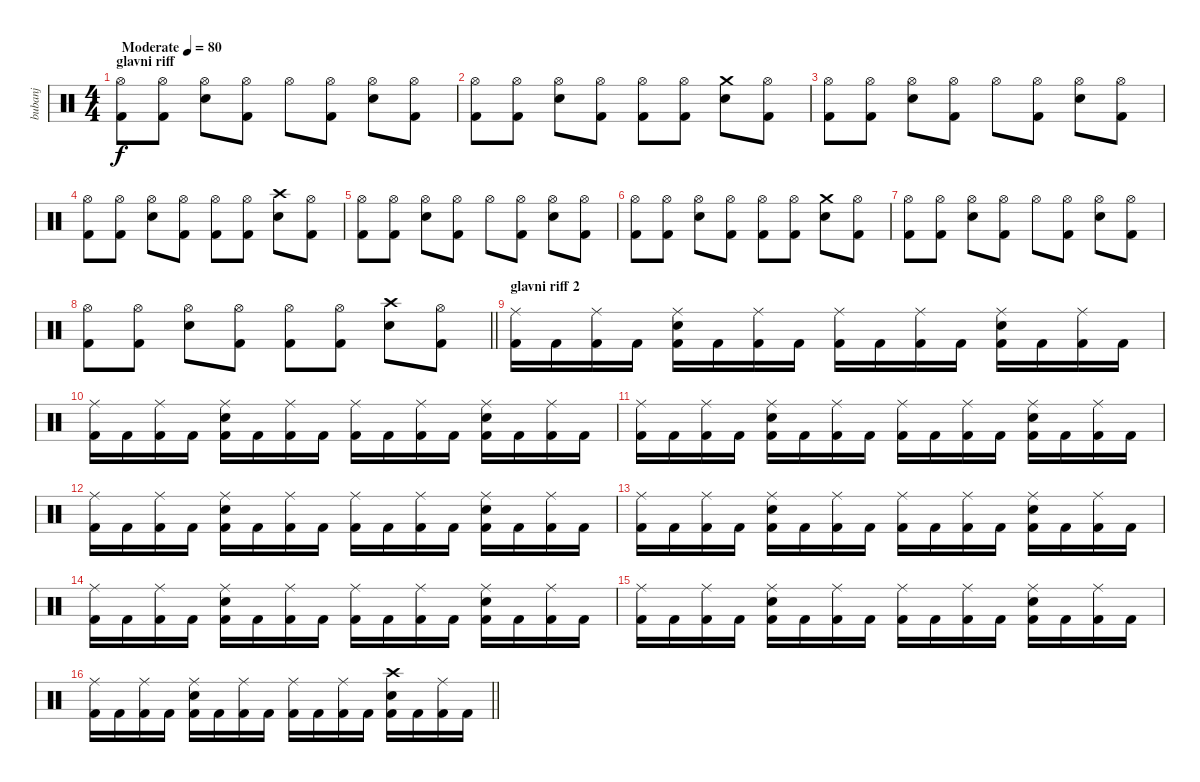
\track ("bubanj" "bubanj") {instrument percussion}
\staff {score}
\articulation defaults
\ts (4 4)
\section ("" "glavni riff")
\tempo (80 "Moderate")
\clef neutral
\ks c
("Hi-Hat (open)" "Kick (hit) 2").8{dy f} ("Hi-Hat (open)" "Kick (hit) 2").8 ("Hi-Hat (open)" "Electric Snare (hit)").8 ("Hi-Hat (open)" "Kick (hit) 2").8 "Hi-Hat (open)".8 ("Hi-Hat (open)" "Kick (hit) 2").8 ("Hi-Hat (open)" "Electric Snare (hit)").8 ("Hi-Hat (open)" "Kick (hit) 2").8 |
("Hi-Hat (open)" "Kick (hit) 2").8 ("Hi-Hat (open)" "Kick (hit) 2").8 ("Hi-Hat (open)" "Electric Snare (hit)").8 ("Hi-Hat (open)" "Kick (hit) 2").8 ("Hi-Hat (open)" "Kick (hit) 2").8 ("Hi-Hat (open)" "Kick (hit) 2").8 ("Crash medium (hit)" "Electric Snare (hit)").8 ("Hi-Hat (open)" "Kick (hit) 2").8 |
("Hi-Hat (open)" "Kick (hit) 2").8 ("Hi-Hat (open)" "Kick (hit) 2").8 ("Hi-Hat (open)" "Electric Snare (hit)").8 ("Hi-Hat (open)" "Kick (hit) 2").8 "Hi-Hat (open)".8 ("Hi-Hat (open)" "Kick (hit) 2").8 ("Hi-Hat (open)" "Electric Snare (hit)").8 ("Hi-Hat (open)" "Kick (hit) 2").8 |
("Hi-Hat (open)" "Kick (hit) 2").8 ("Hi-Hat (open)" "Kick (hit) 2").8 ("Hi-Hat (open)" "Electric Snare (hit)").8 ("Hi-Hat (open)" "Kick (hit) 2").8 ("Hi-Hat (open)" "Kick (hit) 2").8 ("Hi-Hat (open)" "Kick (hit) 2").8 ("Crash high (hit)" "Electric Snare (hit)").8 ("Hi-Hat (open)" "Kick (hit) 2").8 |
("Hi-Hat (open)" "Kick (hit) 2").8 ("Hi-Hat (open)" "Kick (hit) 2").8 ("Hi-Hat (open)" "Electric Snare (hit)").8 ("Hi-Hat (open)" "Kick (hit) 2").8 "Hi-Hat (open)".8 ("Hi-Hat (open)" "Kick (hit) 2").8 ("Hi-Hat (open)" "Electric Snare (hit)").8 ("Hi-Hat (open)" "Kick (hit) 2").8 |
("Hi-Hat (open)" "Kick (hit) 2").8 ("Hi-Hat (open)" "Kick (hit) 2").8 ("Hi-Hat (open)" "Electric Snare (hit)").8 ("Hi-Hat (open)" "Kick (hit) 2").8 ("Hi-Hat (open)" "Kick (hit) 2").8 ("Hi-Hat (open)" "Kick (hit) 2").8 ("Crash medium (hit)" "Electric Snare (hit)").8 ("Hi-Hat (open)" "Kick (hit) 2").8 |
("Hi-Hat (open)" "Kick (hit) 2").8 ("Hi-Hat (open)" "Kick (hit) 2").8 ("Hi-Hat (open)" "Electric Snare (hit)").8 ("Hi-Hat (open)" "Kick (hit) 2").8 "Hi-Hat (open)".8 ("Hi-Hat (open)" "Kick (hit) 2").8 ("Hi-Hat (open)" "Electric Snare (hit)").8 ("Hi-Hat (open)" "Kick (hit) 2").8 |
\barLineRight lightlight
("Hi-Hat (open)" "Kick (hit) 2").8 ("Hi-Hat (open)" "Kick (hit) 2").8 ("Hi-Hat (open)" "Electric Snare (hit)").8 ("Hi-Hat (open)" "Kick (hit) 2").8 ("Hi-Hat (open)" "Kick (hit) 2").8 ("Hi-Hat (open)" "Kick (hit) 2").8 ("Crash high (hit)" "Electric Snare (hit)").8 ("Hi-Hat (open)" "Kick (hit) 2").8 |
\section ("" "glavni riff 2")
("Ride (middle)" "Kick (hit) 2").16 "Kick (hit) 2".16 ("Ride (middle)" "Kick (hit) 2").16 "Kick (hit) 2".16 ("Ride (middle)" "Electric Snare (hit)" "Kick (hit) 2").16 "Kick (hit) 2".16 ("Ride (middle)" "Kick (hit) 2").16 "Kick (hit) 2".16 ("Ride (middle)" "Kick (hit) 2").16 "Kick (hit) 2".16 ("Ride (middle)" "Kick (hit) 2").16 "Kick (hit) 2".16 ("Ride (middle)" "Electric Snare (hit)" "Kick (hit) 2").16 "Kick (hit) 2".16 ("Ride (middle)" "Kick (hit) 2").16 "Kick (hit) 2".16 |
("Ride (middle)" "Kick (hit) 2").16 "Kick (hit) 2".16 ("Ride (middle)" "Kick (hit) 2").16 "Kick (hit) 2".16 ("Ride (middle)" "Electric Snare (hit)" "Kick (hit) 2").16 "Kick (hit) 2".16 ("Ride (middle)" "Kick (hit) 2").16 "Kick (hit) 2".16 ("Ride (middle)" "Kick (hit) 2").16 "Kick (hit) 2".16 ("Ride (middle)" "Kick (hit) 2").16 "Kick (hit) 2".16 ("Ride (middle)" "Electric Snare (hit)" "Kick (hit) 2").16 "Kick (hit) 2".16 ("Ride (middle)" "Kick (hit) 2").16 "Kick (hit) 2".16 |
("Ride (middle)" "Kick (hit) 2").16 "Kick (hit) 2".16 ("Ride (middle)" "Kick (hit) 2").16 "Kick (hit) 2".16 ("Ride (middle)" "Electric Snare (hit)" "Kick (hit) 2").16 "Kick (hit) 2".16 ("Ride (middle)" "Kick (hit) 2").16 "Kick (hit) 2".16 ("Ride (middle)" "Kick (hit) 2").16 "Kick (hit) 2".16 ("Ride (middle)" "Kick (hit) 2").16 "Kick (hit) 2".16 ("Ride (middle)" "Electric Snare (hit)" "Kick (hit) 2").16 "Kick (hit) 2".16 ("Ride (middle)" "Kick (hit) 2").16 "Kick (hit) 2".16 |
("Ride (middle)" "Kick (hit) 2").16 "Kick (hit) 2".16 ("Ride (middle)" "Kick (hit) 2").16 "Kick (hit) 2".16 ("Ride (middle)" "Electric Snare (hit)" "Kick (hit) 2").16 "Kick (hit) 2".16 ("Ride (middle)" "Kick (hit) 2").16 "Kick (hit) 2".16 ("Ride (middle)" "Kick (hit) 2").16 "Kick (hit) 2".16 ("Ride (middle)" "Kick (hit) 2").16 "Kick (hit) 2".16 ("Ride (middle)" "Electric Snare (hit)" "Kick (hit) 2").16 "Kick (hit) 2".16 ("Ride (middle)" "Kick (hit) 2").16 "Kick (hit) 2".16 |
("Ride (middle)" "Kick (hit) 2").16 "Kick (hit) 2".16 ("Ride (middle)" "Kick (hit) 2").16 "Kick (hit) 2".16 ("Ride (middle)" "Electric Snare (hit)" "Kick (hit) 2").16 "Kick (hit) 2".16 ("Ride (middle)" "Kick (hit) 2").16 "Kick (hit) 2".16 ("Ride (middle)" "Kick (hit) 2").16 "Kick (hit) 2".16 ("Ride (middle)" "Kick (hit) 2").16 "Kick (hit) 2".16 ("Ride (middle)" "Electric Snare (hit)" "Kick (hit) 2").16 "Kick (hit) 2".16 ("Ride (middle)" "Kick (hit) 2").16 "Kick (hit) 2".16 |
("Ride (middle)" "Kick (hit) 2").16 "Kick (hit) 2".16 ("Ride (middle)" "Kick (hit) 2").16 "Kick (hit) 2".16 ("Ride (middle)" "Electric Snare (hit)" "Kick (hit) 2").16 "Kick (hit) 2".16 ("Ride (middle)" "Kick (hit) 2").16 "Kick (hit) 2".16 ("Ride (middle)" "Kick (hit) 2").16 "Kick (hit) 2".16 ("Ride (middle)" "Kick (hit) 2").16 "Kick (hit) 2".16 ("Ride (middle)" "Electric Snare (hit)" "Kick (hit) 2").16 "Kick (hit) 2".16 ("Ride (middle)" "Kick (hit) 2").16 "Kick (hit) 2".16 |
("Ride (middle)" "Kick (hit) 2").16 "Kick (hit) 2".16 ("Ride (middle)" "Kick (hit) 2").16 "Kick (hit) 2".16 ("Ride (middle)" "Electric Snare (hit)" "Kick (hit) 2").16 "Kick (hit) 2".16 ("Ride (middle)" "Kick (hit) 2").16 "Kick (hit) 2".16 ("Ride (middle)" "Kick (hit) 2").16 "Kick (hit) 2".16 ("Ride (middle)" "Kick (hit) 2").16 "Kick (hit) 2".16 ("Ride (middle)" "Electric Snare (hit)" "Kick (hit) 2").16 "Kick (hit) 2".16 ("Ride (middle)" "Kick (hit) 2").16 "Kick (hit) 2".16 |
\barLineRight lightlight
("Ride (middle)" "Kick (hit) 2").16 "Kick (hit) 2".16 ("Ride (middle)" "Kick (hit) 2").16 "Kick (hit) 2".16 ("Ride (middle)" "Electric Snare (hit)" "Kick (hit) 2").16 "Kick (hit) 2".16 ("Ride (middle)" "Kick (hit) 2").16 "Kick (hit) 2".16 ("Ride (middle)" "Kick (hit) 2").16 "Kick (hit) 2".16 ("Ride (middle)" "Kick (hit) 2").16 "Kick (hit) 2".16 ("Crash high (hit)" "Electric Snare (hit)" "Kick (hit) 2").16 "Kick (hit) 2".16 ("Ride (middle)" "Kick (hit) 2").16 "Kick (hit) 2".16
